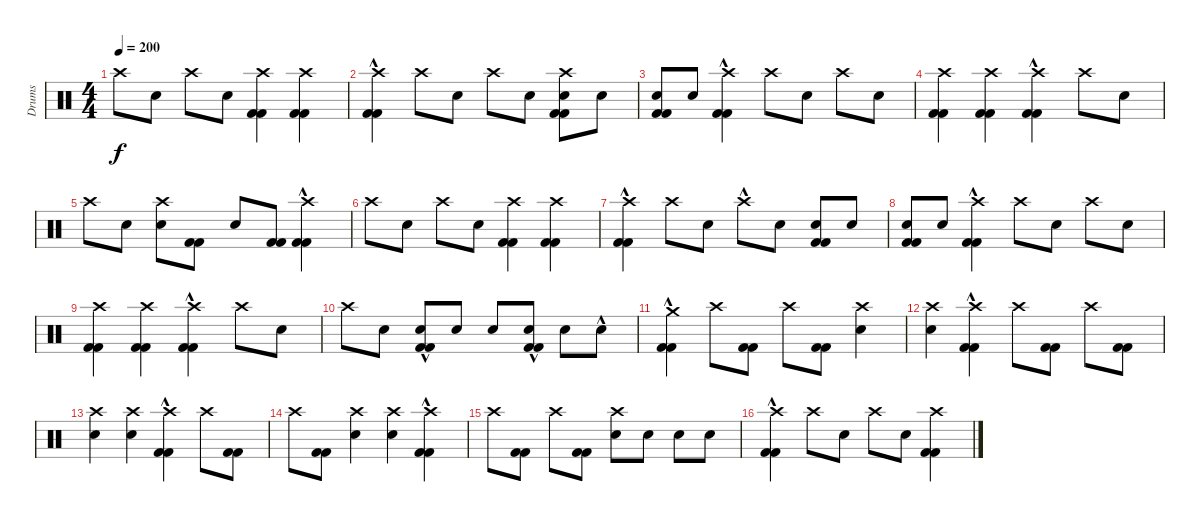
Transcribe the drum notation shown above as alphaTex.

\track ("Drums" "Drums") {instrument percussion}
\staff {score}
\articulation defaults
\ts (4 4)
\tempo 200
\clef neutral
\ks c "Crash high (hit)".8{dy f} "Electric Snare (hit)".8 "Crash high (hit)".8 "Electric Snare (hit)".8
("Kick (hit) 2" "Kick (hit) 2" "Crash high (hit)").4 ("Kick (hit) 2" "Kick (hit) 2" "Crash high (hit)").4 |
("Kick (hit) 2"{hac} "Kick (hit) 2"{hac} "Crash high (hit)").4 "Crash high (hit)".8 "Electric Snare (hit)".8 "Crash high (hit)".8 "Electric Snare (hit)".8 ("Kick (hit) 2" "Kick (hit) 2" "Electric Snare (hit)" "Crash high (hit)").8 "Electric Snare (hit)".8 |
("Kick (hit) 2" "Kick (hit) 2" "Electric Snare (hit)").8 "Electric Snare (hit)".8 ("Kick (hit) 2"{hac} "Kick (hit) 2"{hac} "Crash high (hit)").4 "Crash high (hit)".8 "Electric Snare (hit)".8 "Crash high (hit)".8 "Electric Snare (hit)".8 |
("Kick (hit) 2" "Kick (hit) 2" "Crash high (hit)").4 ("Kick (hit) 2" "Kick (hit) 2" "Crash high (hit)").4 ("Kick (hit) 2"{hac} "Kick (hit) 2"{hac} "Crash high (hit)").4 "Crash high (hit)".8 "Electric Snare (hit)".8 |
"Crash high (hit)".8 "Electric Snare (hit)".8 ("Electric Snare (hit)" "Crash high (hit)").8 ("Kick (hit) 2" "Kick (hit) 2").8 "Electric Snare (hit)".8 ("Kick (hit) 2" "Kick (hit) 2").8 ("Kick (hit) 2"{hac} "Kick (hit) 2"{hac} "Crash high (hit)").4 |
"Crash high (hit)".8 "Electric Snare (hit)".8 "Crash high (hit)".8 "Electric Snare (hit)".8 ("Kick (hit) 2" "Kick (hit) 2" "Crash high (hit)").4 ("Kick (hit) 2" "Kick (hit) 2" "Crash high (hit)").4 |
("Kick (hit) 2"{hac} "Kick (hit) 2"{hac} "Crash high (hit)").4 "Crash high (hit)".8 "Electric Snare (hit)".8 "Crash high (hit)"{hac}.8 "Electric Snare (hit)".8 ("Kick (hit) 2" "Kick (hit) 2" "Electric Snare (hit)").8 "Electric Snare (hit)".8 |
("Kick (hit) 2" "Kick (hit) 2" "Electric Snare (hit)").8 "Electric Snare (hit)".8 ("Kick (hit) 2"{hac} "Kick (hit) 2"{hac} "Crash high (hit)").4 "Crash high (hit)".8 "Electric Snare (hit)".8 "Crash high (hit)".8 "Electric Snare (hit)".8 |
("Kick (hit) 2" "Kick (hit) 2" "Crash high (hit)").4 ("Kick (hit) 2" "Kick (hit) 2" "Crash high (hit)").4 ("Kick (hit) 2"{hac} "Kick (hit) 2"{hac} "Crash high (hit)").4 "Crash high (hit)".8 "Electric Snare (hit)".8 |
"Crash high (hit)".8 "Electric Snare (hit)".8 ("Kick (hit) 2"{hac} "Kick (hit) 2"{hac} "Electric Snare (hit)").8 "Electric Snare (hit)".8 "Electric Snare (hit)".8 ("Kick (hit) 2"{hac} "Kick (hit) 2"{hac} "Electric Snare (hit)").8 "Electric Snare (hit)".8 "Electric Snare (hit)"{hac}.8 |
("Kick (hit) 2"{hac} "Kick (hit) 2"{hac} "Crash medium (hit)").4 "Crash high (hit)".8 ("Kick (hit) 2" "Kick (hit) 2").8 "Crash high (hit)".8 ("Kick (hit) 2" "Kick (hit) 2").8 ("Electric Snare (hit)" "Crash high (hit)").4 |
("Electric Snare (hit)" "Crash high (hit)").4 ("Kick (hit) 2"{hac} "Kick (hit) 2"{hac} "Crash high (hit)").4 "Crash high (hit)".8 ("Kick (hit) 2" "Kick (hit) 2").8 "Crash high (hit)".8 ("Kick (hit) 2" "Kick (hit) 2").8 |
("Electric Snare (hit)" "Crash high (hit)").4 ("Electric Snare (hit)" "Crash high (hit)").4 ("Kick (hit) 2"{hac} "Kick (hit) 2"{hac} "Crash high (hit)").4 "Crash high (hit)".8 ("Kick (hit) 2" "Kick (hit) 2").8 |
"Crash high (hit)".8 ("Kick (hit) 2" "Kick (hit) 2").8 ("Electric Snare (hit)" "Crash high (hit)").4 ("Electric Snare (hit)" "Crash high (hit)").4 ("Kick (hit) 2"{hac} "Kick (hit) 2"{hac} "Crash high (hit)").4 |
"Crash high (hit)".8 ("Kick (hit) 2" "Kick (hit) 2").8 "Crash high (hit)".8 ("Kick (hit) 2" "Kick (hit) 2").8 ("Electric Snare (hit)" "Crash high (hit)").8 "Electric Snare (hit)".8 "Electric Snare (hit)".8 "Electric Snare (hit)".8 |
("Kick (hit) 2"{hac} "Kick (hit) 2"{hac} "Crash high (hit)").4 "Crash high (hit)".8 "Electric Snare (hit)".8 "Crash high (hit)".8 "Electric Snare (hit)".8 ("Kick (hit) 2" "Kick (hit) 2" "Crash high (hit)").4
